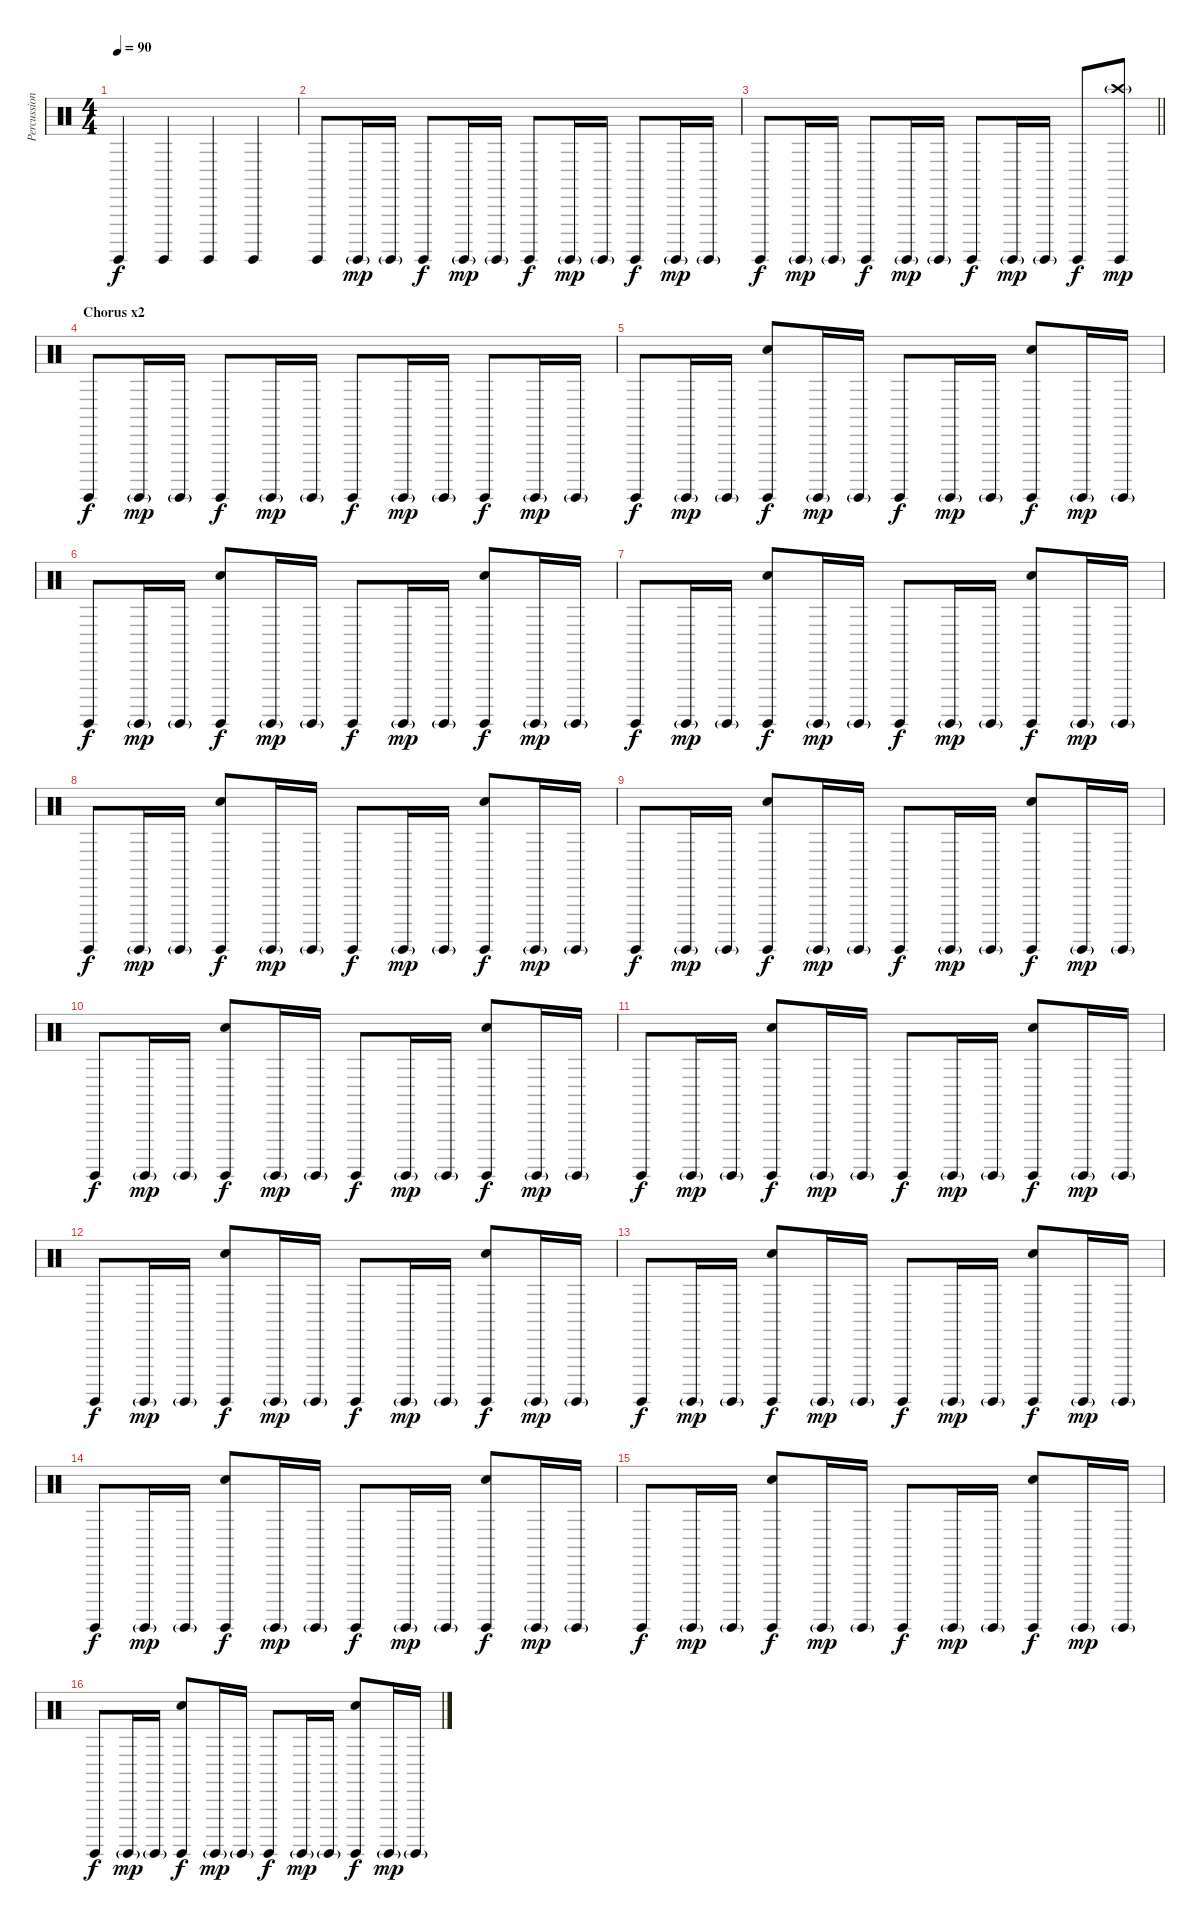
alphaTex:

\track ("Percussion" "Percussion") {instrument percussion}
\staff {score}
\articulation defaults
\ts (4 4)
\tempo 90
\clef neutral
\ks c "Surdo (hit)".4{dy f} "Surdo (hit)".4 "Surdo (hit)".4 "Surdo (hit)".4
|
"Surdo (hit)".8 "Surdo (hit)"{g}.16{dy mp} "Surdo (hit)"{g}.16 "Surdo (hit)".8{dy f} "Surdo (hit)"{g}.16{dy mp} "Surdo (hit)"{g}.16 "Surdo (hit)".8{dy f} "Surdo (hit)"{g}.16{dy mp} "Surdo (hit)"{g}.16 "Surdo (hit)".8{dy f} "Surdo (hit)"{g}.16{dy mp} "Surdo (hit)"{g}.16 |
\barLineRight lightlight "Surdo (hit)".8{dy f} "Surdo (hit)"{g}.16{dy mp} "Surdo (hit)"{g}.16 "Surdo (hit)".8{dy f} "Surdo (hit)"{g}.16{dy mp} "Surdo (hit)"{g}.16 "Surdo (hit)".8{dy f} "Surdo (hit)"{g}.16{dy mp} "Surdo (hit)"{g}.16 "Surdo (hit)".8{dy f}
("Surdo (hit)" "Crash high (hit)"{g}).8{dy mp} |
\section ("" "Chorus x2")
"Surdo (hit)".8{dy f} "Surdo (hit)"{g}.16{dy mp} "Surdo (hit)"{g}.16 "Surdo (hit)".8{dy f} "Surdo (hit)"{g}.16{dy mp} "Surdo (hit)"{g}.16 "Surdo (hit)".8{dy f} "Surdo (hit)"{g}.16{dy mp} "Surdo (hit)"{g}.16 "Surdo (hit)".8{dy f} "Surdo (hit)"{g}.16{dy mp} "Surdo (hit)"{g}.16 |
"Surdo (hit)".8{dy f} "Surdo (hit)"{g}.16{dy mp} "Surdo (hit)"{g}.16 ("Surdo (hit)" "Hand Clap (hit)").8{dy f} "Surdo (hit)"{g}.16{dy mp} "Surdo (hit)"{g}.16 "Surdo (hit)".8{dy f} "Surdo (hit)"{g}.16{dy mp} "Surdo (hit)"{g}.16 ("Surdo (hit)" "Hand Clap (hit)").8{dy f} "Surdo (hit)"{g}.16{dy mp} "Surdo (hit)"{g}.16 |
"Surdo (hit)".8{dy f} "Surdo (hit)"{g}.16{dy mp} "Surdo (hit)"{g}.16 ("Surdo (hit)" "Hand Clap (hit)").8{dy f} "Surdo (hit)"{g}.16{dy mp} "Surdo (hit)"{g}.16 "Surdo (hit)".8{dy f} "Surdo (hit)"{g}.16{dy mp} "Surdo (hit)"{g}.16 ("Surdo (hit)" "Hand Clap (hit)").8{dy f} "Surdo (hit)"{g}.16{dy mp} "Surdo (hit)"{g}.16 |
"Surdo (hit)".8{dy f} "Surdo (hit)"{g}.16{dy mp} "Surdo (hit)"{g}.16 ("Surdo (hit)" "Hand Clap (hit)").8{dy f} "Surdo (hit)"{g}.16{dy mp} "Surdo (hit)"{g}.16 "Surdo (hit)".8{dy f} "Surdo (hit)"{g}.16{dy mp} "Surdo (hit)"{g}.16 ("Surdo (hit)" "Hand Clap (hit)").8{dy f} "Surdo (hit)"{g}.16{dy mp} "Surdo (hit)"{g}.16 |
"Surdo (hit)".8{dy f} "Surdo (hit)"{g}.16{dy mp} "Surdo (hit)"{g}.16 ("Surdo (hit)" "Hand Clap (hit)").8{dy f} "Surdo (hit)"{g}.16{dy mp} "Surdo (hit)"{g}.16 "Surdo (hit)".8{dy f} "Surdo (hit)"{g}.16{dy mp} "Surdo (hit)"{g}.16 ("Surdo (hit)" "Hand Clap (hit)").8{dy f} "Surdo (hit)"{g}.16{dy mp} "Surdo (hit)"{g}.16 |
"Surdo (hit)".8{dy f} "Surdo (hit)"{g}.16{dy mp} "Surdo (hit)"{g}.16 ("Surdo (hit)" "Hand Clap (hit)").8{dy f} "Surdo (hit)"{g}.16{dy mp} "Surdo (hit)"{g}.16 "Surdo (hit)".8{dy f} "Surdo (hit)"{g}.16{dy mp} "Surdo (hit)"{g}.16 ("Surdo (hit)" "Hand Clap (hit)").8{dy f} "Surdo (hit)"{g}.16{dy mp} "Surdo (hit)"{g}.16 |
"Surdo (hit)".8{dy f} "Surdo (hit)"{g}.16{dy mp} "Surdo (hit)"{g}.16 ("Surdo (hit)" "Hand Clap (hit)").8{dy f} "Surdo (hit)"{g}.16{dy mp} "Surdo (hit)"{g}.16 "Surdo (hit)".8{dy f} "Surdo (hit)"{g}.16{dy mp} "Surdo (hit)"{g}.16 ("Surdo (hit)" "Hand Clap (hit)").8{dy f} "Surdo (hit)"{g}.16{dy mp} "Surdo (hit)"{g}.16 |
"Surdo (hit)".8{dy f} "Surdo (hit)"{g}.16{dy mp} "Surdo (hit)"{g}.16 ("Surdo (hit)" "Hand Clap (hit)").8{dy f} "Surdo (hit)"{g}.16{dy mp} "Surdo (hit)"{g}.16 "Surdo (hit)".8{dy f} "Surdo (hit)"{g}.16{dy mp} "Surdo (hit)"{g}.16 ("Surdo (hit)" "Hand Clap (hit)").8{dy f} "Surdo (hit)"{g}.16{dy mp} "Surdo (hit)"{g}.16 |
"Surdo (hit)".8{dy f} "Surdo (hit)"{g}.16{dy mp} "Surdo (hit)"{g}.16 ("Surdo (hit)" "Hand Clap (hit)").8{dy f} "Surdo (hit)"{g}.16{dy mp} "Surdo (hit)"{g}.16 "Surdo (hit)".8{dy f} "Surdo (hit)"{g}.16{dy mp} "Surdo (hit)"{g}.16 ("Surdo (hit)" "Hand Clap (hit)").8{dy f} "Surdo (hit)"{g}.16{dy mp} "Surdo (hit)"{g}.16 |
"Surdo (hit)".8{dy f} "Surdo (hit)"{g}.16{dy mp} "Surdo (hit)"{g}.16 ("Surdo (hit)" "Hand Clap (hit)").8{dy f} "Surdo (hit)"{g}.16{dy mp} "Surdo (hit)"{g}.16 "Surdo (hit)".8{dy f} "Surdo (hit)"{g}.16{dy mp} "Surdo (hit)"{g}.16 ("Surdo (hit)" "Hand Clap (hit)").8{dy f} "Surdo (hit)"{g}.16{dy mp} "Surdo (hit)"{g}.16 |
"Surdo (hit)".8{dy f} "Surdo (hit)"{g}.16{dy mp} "Surdo (hit)"{g}.16 ("Surdo (hit)" "Hand Clap (hit)").8{dy f} "Surdo (hit)"{g}.16{dy mp} "Surdo (hit)"{g}.16 "Surdo (hit)".8{dy f} "Surdo (hit)"{g}.16{dy mp} "Surdo (hit)"{g}.16 ("Surdo (hit)" "Hand Clap (hit)").8{dy f} "Surdo (hit)"{g}.16{dy mp} "Surdo (hit)"{g}.16 |
"Surdo (hit)".8{dy f} "Surdo (hit)"{g}.16{dy mp} "Surdo (hit)"{g}.16 ("Surdo (hit)" "Hand Clap (hit)").8{dy f} "Surdo (hit)"{g}.16{dy mp} "Surdo (hit)"{g}.16 "Surdo (hit)".8{dy f} "Surdo (hit)"{g}.16{dy mp} "Surdo (hit)"{g}.16 ("Surdo (hit)" "Hand Clap (hit)").8{dy f} "Surdo (hit)"{g}.16{dy mp} "Surdo (hit)"{g}.16 |
"Surdo (hit)".8{dy f} "Surdo (hit)"{g}.16{dy mp} "Surdo (hit)"{g}.16 ("Surdo (hit)" "Hand Clap (hit)").8{dy f} "Surdo (hit)"{g}.16{dy mp} "Surdo (hit)"{g}.16 "Surdo (hit)".8{dy f} "Surdo (hit)"{g}.16{dy mp} "Surdo (hit)"{g}.16 ("Surdo (hit)" "Hand Clap (hit)").8{dy f} "Surdo (hit)"{g}.16{dy mp} "Surdo (hit)"{g}.16
